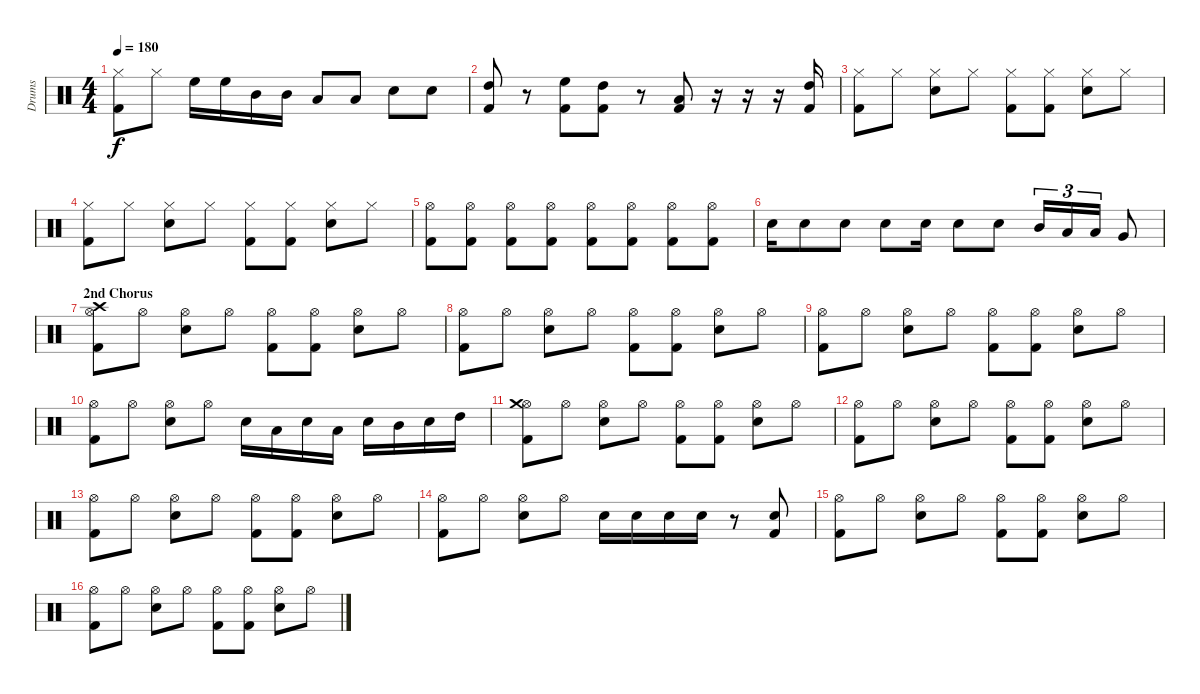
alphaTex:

\track ("Drums" "Drums") {instrument percussion}
\staff {score}
\articulation defaults
\ts (4 4)
\tempo 180
\clef neutral
\ks c
("Hi-Hat (closed)" "Kick (hit) 2").8{dy f} "Hi-Hat (closed)".8 "High Floor Tom (hit)".16 "High Floor Tom (hit)".16 "Mid Tom (hit)".16 "Mid Tom (hit)".16 "Low Floor Tom (hit)".8 "Low Floor Tom (hit)".8 "Snare (hit) 2".8 "Snare (hit) 2".8 |
("High Tom (hit)" "Kick (hit) 2").8 r.8 ("High Floor Tom (hit)" "Kick (hit) 2").8 ("High Tom (hit)" "Kick (hit) 2").8 r.8 ("Low Floor Tom (hit)" "Kick (hit) 2").8 r.16 r.16 r.16 ("High Tom (hit)" "Kick (hit) 2").16 |
("Hi-Hat (closed)" "Kick (hit) 2").8 "Hi-Hat (closed)".8 ("Hi-Hat (closed)" "Snare (hit) 2").8 "Hi-Hat (closed)".8 ("Hi-Hat (closed)" "Kick (hit) 2").8 ("Hi-Hat (closed)" "Kick (hit) 2").8 ("Hi-Hat (closed)" "Snare (hit) 2").8 "Hi-Hat (closed)".8 |
("Hi-Hat (closed)" "Kick (hit) 2").8 "Hi-Hat (closed)".8 ("Hi-Hat (closed)" "Snare (hit) 2").8 "Hi-Hat (closed)".8 ("Hi-Hat (closed)" "Kick (hit) 2").8 ("Hi-Hat (closed)" "Kick (hit) 2").8 ("Hi-Hat (closed)" "Snare (hit) 2").8 "Hi-Hat (closed)".8 |
("Hi-Hat (open)" "Kick (hit) 2").8 ("Hi-Hat (open)" "Kick (hit) 2").8 ("Hi-Hat (open)" "Kick (hit) 2").8 ("Hi-Hat (open)" "Kick (hit) 2").8 ("Hi-Hat (open)" "Kick (hit) 2").8 ("Hi-Hat (open)" "Kick (hit) 2").8 ("Hi-Hat (open)" "Kick (hit) 2").8 ("Hi-Hat (open)" "Kick (hit) 2").8 |
"Snare (hit) 2".16 "Snare (hit) 2".8 "Snare (hit) 2".8 "Snare (hit) 2".8 "Snare (hit) 2".16 "Snare (hit) 2".8 "Snare (hit) 2".8 "Mid Tom (hit)".16{tu (3 2)} "Low Tom (hit)".16{tu (3 2)} "Low Tom (hit)".16{tu (3 2)} "Very Low Tom (hit)".8 |
\section ("" "2nd Chorus")
("Hi-Hat (open)" "Crash high (hit)" "Kick (hit) 2").8 "Hi-Hat (open)".8 ("Hi-Hat (open)" "Snare (hit) 2").8 "Hi-Hat (open)".8 ("Hi-Hat (open)" "Kick (hit) 2").8 ("Hi-Hat (open)" "Kick (hit) 2").8 ("Hi-Hat (open)" "Snare (hit) 2").8 "Hi-Hat (open)".8 |
("Hi-Hat (open)" "Kick (hit) 2").8 "Hi-Hat (open)".8 ("Hi-Hat (open)" "Snare (hit) 2").8 "Hi-Hat (open)".8 ("Hi-Hat (open)" "Kick (hit) 2").8 ("Hi-Hat (open)" "Kick (hit) 2").8 ("Hi-Hat (open)" "Snare (hit) 2").8 "Hi-Hat (open)".8 |
("Hi-Hat (open)" "Kick (hit) 2").8 "Hi-Hat (open)".8 ("Hi-Hat (open)" "Snare (hit) 2").8 "Hi-Hat (open)".8 ("Hi-Hat (open)" "Kick (hit) 2").8 ("Hi-Hat (open)" "Kick (hit) 2").8 ("Hi-Hat (open)" "Snare (hit) 2").8 "Hi-Hat (open)".8 |
("Hi-Hat (open)" "Kick (hit) 2").8 "Hi-Hat (open)".8 ("Hi-Hat (open)" "Snare (hit) 2").8 "Hi-Hat (open)".8 "Snare (hit) 2".16 "Low Floor Tom (hit)".16 "Snare (hit) 2".16 "Low Tom (hit)".16 "Snare (hit) 2".16 "Mid Tom (hit)".16 "Snare (hit) 2".16 "High Tom (hit)".16 |
("Hi-Hat (open)" "Crash medium (hit)" "Kick (hit) 2").8 "Hi-Hat (open)".8 ("Hi-Hat (open)" "Snare (hit) 2").8 "Hi-Hat (open)".8 ("Hi-Hat (open)" "Kick (hit) 2").8 ("Hi-Hat (open)" "Kick (hit) 2").8 ("Hi-Hat (open)" "Snare (hit) 2").8 "Hi-Hat (open)".8 |
("Hi-Hat (open)" "Kick (hit) 2").8 "Hi-Hat (open)".8 ("Hi-Hat (open)" "Snare (hit) 2").8 "Hi-Hat (open)".8 ("Hi-Hat (open)" "Kick (hit) 2").8 ("Hi-Hat (open)" "Kick (hit) 2").8 ("Hi-Hat (open)" "Snare (hit) 2").8 "Hi-Hat (open)".8 |
("Hi-Hat (open)" "Kick (hit) 2").8 "Hi-Hat (open)".8 ("Hi-Hat (open)" "Snare (hit) 2").8 "Hi-Hat (open)".8 ("Hi-Hat (open)" "Kick (hit) 2").8 ("Hi-Hat (open)" "Kick (hit) 2").8 ("Hi-Hat (open)" "Snare (hit) 2").8 "Hi-Hat (open)".8 |
("Hi-Hat (open)" "Kick (hit) 2").8 "Hi-Hat (open)".8 ("Hi-Hat (open)" "Snare (hit) 2").8 "Hi-Hat (open)".8 "Snare (hit) 2".16 "Snare (hit) 2".16 "Snare (hit) 2".16 "Snare (hit) 2".16 r.8 ("Snare (hit) 2" "Kick (hit) 2").8 |
("Hi-Hat (open)" "Kick (hit) 2").8 "Hi-Hat (open)".8 ("Hi-Hat (open)" "Snare (hit) 2").8 "Hi-Hat (open)".8 ("Hi-Hat (open)" "Kick (hit) 2").8 ("Hi-Hat (open)" "Kick (hit) 2").8 ("Hi-Hat (open)" "Snare (hit) 2").8 "Hi-Hat (open)".8 |
("Hi-Hat (open)" "Kick (hit) 2").8 "Hi-Hat (open)".8 ("Hi-Hat (open)" "Snare (hit) 2").8 "Hi-Hat (open)".8 ("Hi-Hat (open)" "Kick (hit) 2").8 ("Hi-Hat (open)" "Kick (hit) 2").8 ("Hi-Hat (open)" "Snare (hit) 2").8 "Hi-Hat (open)".8
